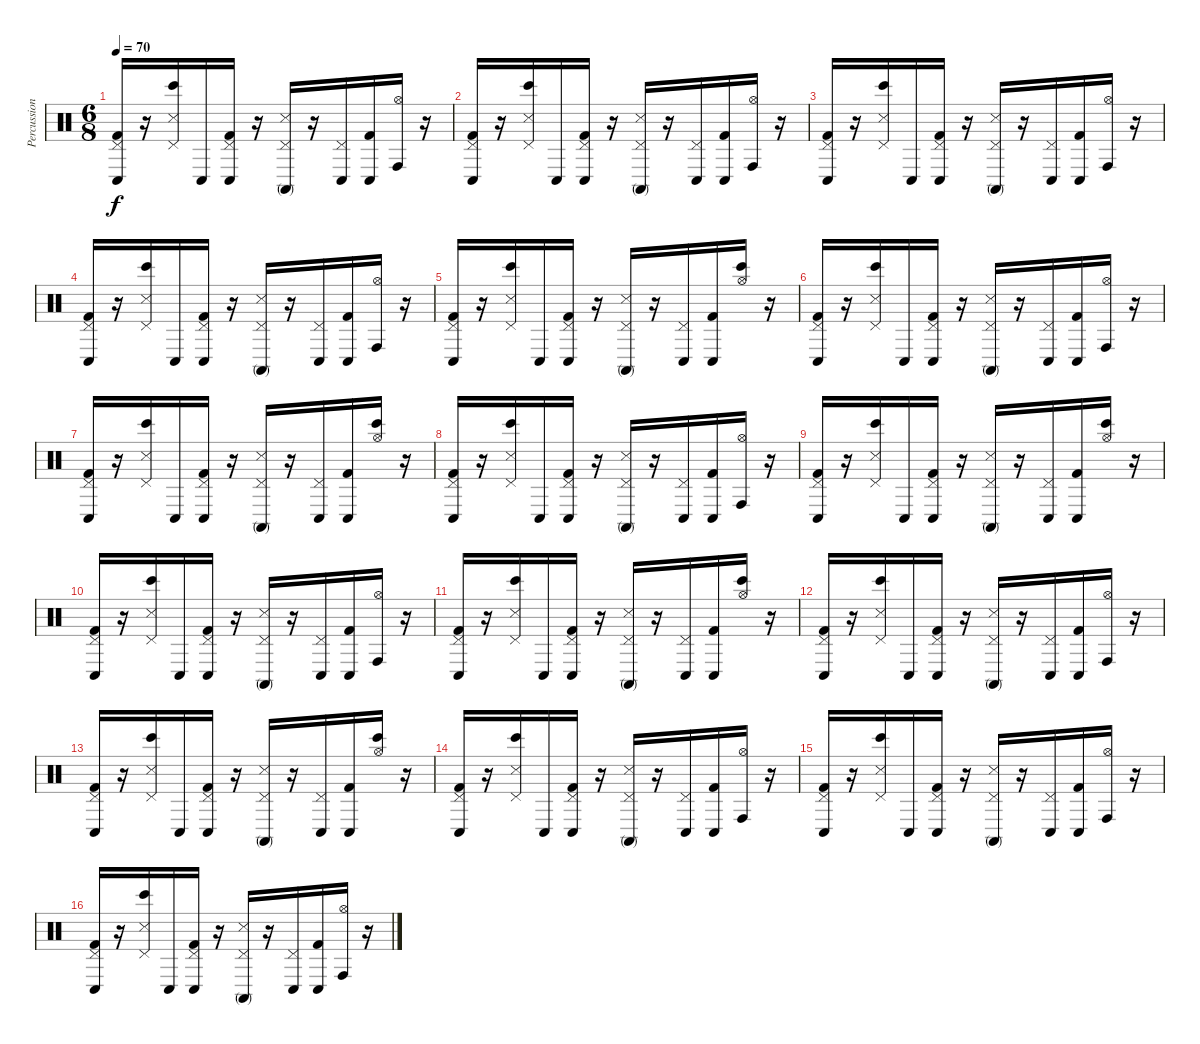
\track ("Percussion" "Percussion") {instrument percussion}
\staff {score}
\articulation defaults
\ts (6 8)
\tempo 70
\clef neutral
\ks c
("Pedal Hi-Hat (hit)" "Conga low (hit)" "Kick (hit) 2").16{dy f} r.16 ("Pedal Hi-Hat (hit)" "Bongo High (hit)" "Snare (side stick) 3").16 "Conga low (hit)".16 ("Pedal Hi-Hat (hit)" "Conga low (hit)" "Kick (hit) 2").16 r.16 ("Pedal Hi-Hat (hit)" "Conga high (mute)" "Snare (side stick) 3").16 r.16 ("Pedal Hi-Hat (hit)" "Conga low (hit)").16 ("Conga low (hit)" "Kick (hit) 2").16 ("Hi-Hat (open)" "Conga high (hit)").16 r.16 |
("Pedal Hi-Hat (hit)" "Conga low (hit)" "Kick (hit) 2").16 r.16 ("Pedal Hi-Hat (hit)" "Bongo High (hit)" "Snare (side stick) 3").16 "Conga low (hit)".16 ("Pedal Hi-Hat (hit)" "Conga low (hit)" "Kick (hit) 2").16 r.16 ("Pedal Hi-Hat (hit)" "Conga high (mute)" "Snare (side stick) 3").16 r.16 ("Pedal Hi-Hat (hit)" "Conga low (hit)").16 ("Conga low (hit)" "Kick (hit) 2").16 ("Hi-Hat (open)" "Conga high (hit)").16 r.16 |
("Pedal Hi-Hat (hit)" "Conga low (hit)" "Kick (hit) 2").16 r.16 ("Pedal Hi-Hat (hit)" "Bongo High (hit)" "Snare (side stick) 3").16 "Conga low (hit)".16 ("Pedal Hi-Hat (hit)" "Conga low (hit)" "Kick (hit) 2").16 r.16 ("Pedal Hi-Hat (hit)" "Conga high (mute)" "Snare (side stick) 3").16 r.16 ("Pedal Hi-Hat (hit)" "Conga low (hit)").16 ("Conga low (hit)" "Kick (hit) 2").16 ("Hi-Hat (open)" "Conga high (hit)").16 r.16 |
("Pedal Hi-Hat (hit)" "Conga low (hit)" "Kick (hit) 2").16 r.16 ("Pedal Hi-Hat (hit)" "Bongo High (hit)" "Snare (side stick) 3").16 "Conga low (hit)".16 ("Pedal Hi-Hat (hit)" "Conga low (hit)" "Kick (hit) 2").16 r.16 ("Pedal Hi-Hat (hit)" "Conga high (mute)" "Snare (side stick) 3").16 r.16 ("Pedal Hi-Hat (hit)" "Conga low (hit)").16 ("Conga low (hit)" "Kick (hit) 2").16 ("Hi-Hat (open)" "Conga high (hit)").16 r.16 |
("Pedal Hi-Hat (hit)" "Conga low (hit)" "Kick (hit) 2").16 r.16 ("Pedal Hi-Hat (hit)" "Bongo High (hit)" "Snare (side stick) 3").16 "Conga low (hit)".16 ("Pedal Hi-Hat (hit)" "Conga low (hit)" "Kick (hit) 2").16 r.16 ("Pedal Hi-Hat (hit)" "Conga high (mute)" "Snare (side stick) 3").16 r.16 ("Pedal Hi-Hat (hit)" "Conga low (hit)").16 ("Conga low (hit)" "Kick (hit) 2").16 ("Hi-Hat (open)" "Bongo High (hit)").16 r.16 |
("Pedal Hi-Hat (hit)" "Conga low (hit)" "Kick (hit) 2").16 r.16 ("Pedal Hi-Hat (hit)" "Bongo High (hit)" "Snare (side stick) 3").16 "Conga low (hit)".16 ("Pedal Hi-Hat (hit)" "Conga low (hit)" "Kick (hit) 2").16 r.16 ("Pedal Hi-Hat (hit)" "Conga high (mute)" "Snare (side stick) 3").16 r.16 ("Pedal Hi-Hat (hit)" "Conga low (hit)").16 ("Conga low (hit)" "Kick (hit) 2").16 ("Hi-Hat (open)" "Conga high (hit)").16 r.16 |
("Pedal Hi-Hat (hit)" "Conga low (hit)" "Kick (hit) 2").16 r.16 ("Pedal Hi-Hat (hit)" "Bongo High (hit)" "Snare (side stick) 3").16 "Conga low (hit)".16 ("Pedal Hi-Hat (hit)" "Conga low (hit)" "Kick (hit) 2").16 r.16 ("Pedal Hi-Hat (hit)" "Conga high (mute)" "Snare (side stick) 3").16 r.16 ("Pedal Hi-Hat (hit)" "Conga low (hit)").16 ("Conga low (hit)" "Kick (hit) 2").16 ("Hi-Hat (open)" "Bongo High (hit)").16 r.16 |
("Pedal Hi-Hat (hit)" "Conga low (hit)" "Kick (hit) 2").16 r.16 ("Pedal Hi-Hat (hit)" "Bongo High (hit)" "Snare (side stick) 3").16 "Conga low (hit)".16 ("Pedal Hi-Hat (hit)" "Conga low (hit)" "Kick (hit) 2").16 r.16 ("Pedal Hi-Hat (hit)" "Conga high (mute)" "Snare (side stick) 3").16 r.16 ("Pedal Hi-Hat (hit)" "Conga low (hit)").16 ("Conga low (hit)" "Kick (hit) 2").16 ("Hi-Hat (open)" "Conga high (hit)").16 r.16 |
("Pedal Hi-Hat (hit)" "Conga low (hit)" "Kick (hit) 2").16 r.16 ("Pedal Hi-Hat (hit)" "Bongo High (hit)" "Snare (side stick) 3").16 "Conga low (hit)".16 ("Pedal Hi-Hat (hit)" "Conga low (hit)" "Kick (hit) 2").16 r.16 ("Pedal Hi-Hat (hit)" "Conga high (mute)" "Snare (side stick) 3").16 r.16 ("Pedal Hi-Hat (hit)" "Conga low (hit)").16 ("Conga low (hit)" "Kick (hit) 2").16 ("Hi-Hat (open)" "Bongo High (hit)").16 r.16 |
("Pedal Hi-Hat (hit)" "Conga low (hit)" "Kick (hit) 2").16 r.16 ("Pedal Hi-Hat (hit)" "Bongo High (hit)" "Snare (side stick) 3").16 "Conga low (hit)".16 ("Pedal Hi-Hat (hit)" "Conga low (hit)" "Kick (hit) 2").16 r.16 ("Pedal Hi-Hat (hit)" "Conga high (mute)" "Snare (side stick) 3").16 r.16 ("Pedal Hi-Hat (hit)" "Conga low (hit)").16 ("Conga low (hit)" "Kick (hit) 2").16 ("Hi-Hat (open)" "Conga high (hit)").16 r.16 |
("Pedal Hi-Hat (hit)" "Conga low (hit)" "Kick (hit) 2").16 r.16 ("Pedal Hi-Hat (hit)" "Bongo High (hit)" "Snare (side stick) 3").16 "Conga low (hit)".16 ("Pedal Hi-Hat (hit)" "Conga low (hit)" "Kick (hit) 2").16 r.16 ("Pedal Hi-Hat (hit)" "Conga high (mute)" "Snare (side stick) 3").16 r.16 ("Pedal Hi-Hat (hit)" "Conga low (hit)").16 ("Conga low (hit)" "Kick (hit) 2").16 ("Hi-Hat (open)" "Bongo High (hit)").16 r.16 |
("Pedal Hi-Hat (hit)" "Conga low (hit)" "Kick (hit) 2").16 r.16 ("Pedal Hi-Hat (hit)" "Bongo High (hit)" "Snare (side stick) 3").16 "Conga low (hit)".16 ("Pedal Hi-Hat (hit)" "Conga low (hit)" "Kick (hit) 2").16 r.16 ("Pedal Hi-Hat (hit)" "Conga high (mute)" "Snare (side stick) 3").16 r.16 ("Pedal Hi-Hat (hit)" "Conga low (hit)").16 ("Conga low (hit)" "Kick (hit) 2").16 ("Hi-Hat (open)" "Conga high (hit)").16 r.16 |
("Pedal Hi-Hat (hit)" "Conga low (hit)" "Kick (hit) 2").16 r.16 ("Pedal Hi-Hat (hit)" "Bongo High (hit)" "Snare (side stick) 3").16 "Conga low (hit)".16 ("Pedal Hi-Hat (hit)" "Conga low (hit)" "Kick (hit) 2").16 r.16 ("Pedal Hi-Hat (hit)" "Conga high (mute)" "Snare (side stick) 3").16 r.16 ("Pedal Hi-Hat (hit)" "Conga low (hit)").16 ("Conga low (hit)" "Kick (hit) 2").16 ("Hi-Hat (open)" "Bongo High (hit)").16 r.16 |
("Pedal Hi-Hat (hit)" "Conga low (hit)" "Kick (hit) 2").16 r.16 ("Pedal Hi-Hat (hit)" "Bongo High (hit)" "Snare (side stick) 3").16 "Conga low (hit)".16 ("Pedal Hi-Hat (hit)" "Conga low (hit)" "Kick (hit) 2").16 r.16 ("Pedal Hi-Hat (hit)" "Conga high (mute)" "Snare (side stick) 3").16 r.16 ("Pedal Hi-Hat (hit)" "Conga low (hit)").16 ("Conga low (hit)" "Kick (hit) 2").16 ("Hi-Hat (open)" "Conga high (hit)").16 r.16 |
("Pedal Hi-Hat (hit)" "Conga low (hit)" "Kick (hit) 2").16 r.16 ("Pedal Hi-Hat (hit)" "Bongo High (hit)" "Snare (side stick) 3").16 "Conga low (hit)".16 ("Pedal Hi-Hat (hit)" "Conga low (hit)" "Kick (hit) 2").16 r.16 ("Pedal Hi-Hat (hit)" "Conga high (mute)" "Snare (side stick) 3").16 r.16 ("Pedal Hi-Hat (hit)" "Conga low (hit)").16 ("Conga low (hit)" "Kick (hit) 2").16 ("Hi-Hat (open)" "Conga high (hit)").16 r.16 |
("Pedal Hi-Hat (hit)" "Conga low (hit)" "Kick (hit) 2").16 r.16 ("Pedal Hi-Hat (hit)" "Bongo High (hit)" "Snare (side stick) 3").16 "Conga low (hit)".16 ("Pedal Hi-Hat (hit)" "Conga low (hit)" "Kick (hit) 2").16 r.16 ("Pedal Hi-Hat (hit)" "Conga high (mute)" "Snare (side stick) 3").16 r.16 ("Pedal Hi-Hat (hit)" "Conga low (hit)").16 ("Conga low (hit)" "Kick (hit) 2").16 ("Hi-Hat (open)" "Conga high (hit)").16 r.16
